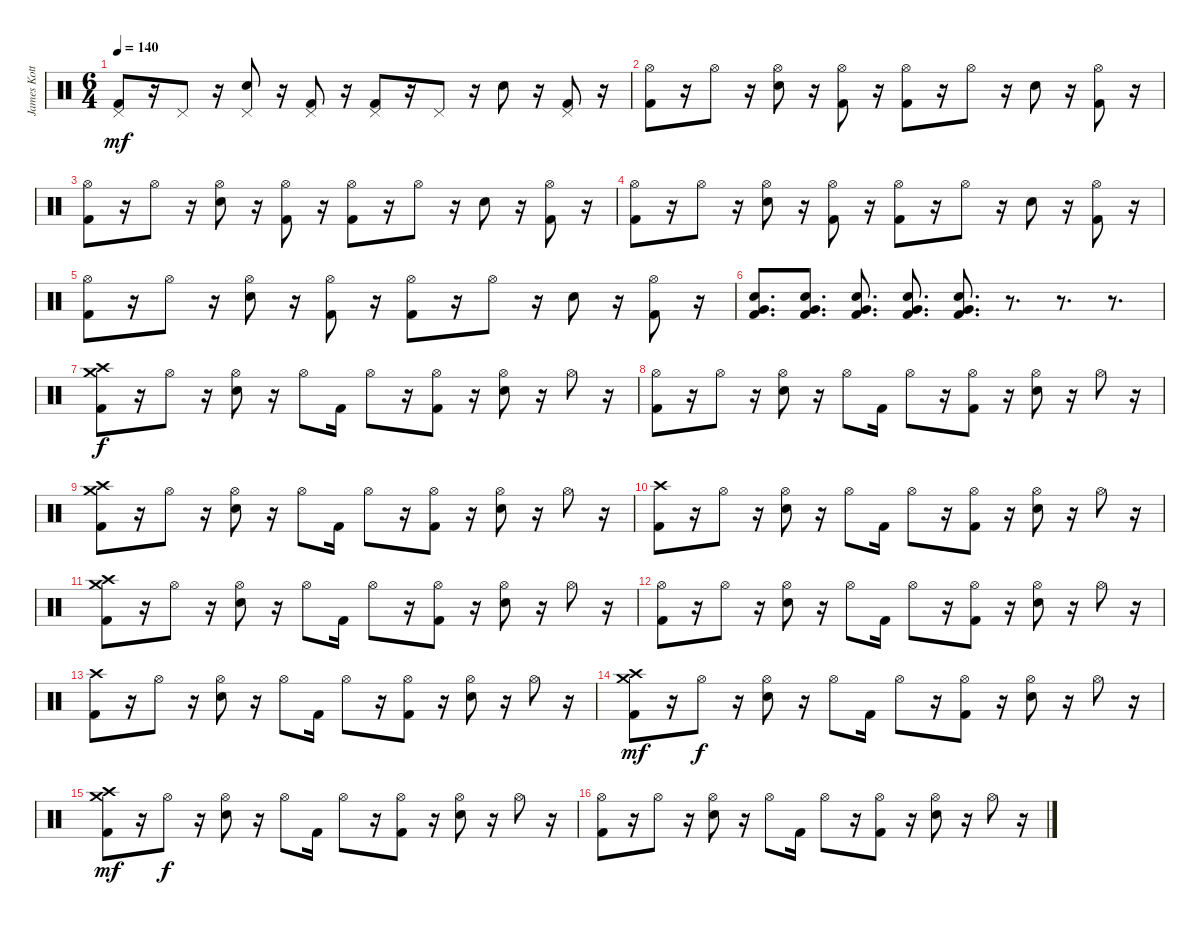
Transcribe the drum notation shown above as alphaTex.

\track ("James Kottak" "James Kott") {instrument percussion}
\staff {score}
\articulation defaults
\ts (6 4)
\tempo 140
\clef neutral
\ks c
("Pedal Hi-Hat (hit)" "Kick (hit) 2").8{dy mf} r.16 "Pedal Hi-Hat (hit)".8 r.16 ("Pedal Hi-Hat (hit)" "Electric Snare (hit)").8 r.16 ("Pedal Hi-Hat (hit)" "Kick (hit) 2").8 r.16 ("Pedal Hi-Hat (hit)" "Kick (hit) 2").8 r.16 "Pedal Hi-Hat (hit)".8 r.16 "Electric Snare (hit)".8 r.16 ("Pedal Hi-Hat (hit)" "Kick (hit) 2").8 r.16 |
("Hi-Hat (open)" "Kick (hit) 2").8 r.16 "Hi-Hat (open)".8 r.16 ("Hi-Hat (open)" "Electric Snare (hit)").8 r.16 ("Hi-Hat (open)" "Kick (hit) 2").8 r.16 ("Hi-Hat (open)" "Kick (hit) 2").8 r.16 "Hi-Hat (open)".8 r.16 "Electric Snare (hit)".8 r.16 ("Hi-Hat (open)" "Kick (hit) 2").8 r.16 |
("Hi-Hat (open)" "Kick (hit) 2").8 r.16 "Hi-Hat (open)".8 r.16 ("Hi-Hat (open)" "Electric Snare (hit)").8 r.16 ("Hi-Hat (open)" "Kick (hit) 2").8 r.16 ("Hi-Hat (open)" "Kick (hit) 2").8 r.16 "Hi-Hat (open)".8 r.16 "Electric Snare (hit)".8 r.16 ("Hi-Hat (open)" "Kick (hit) 2").8 r.16 |
("Hi-Hat (open)" "Kick (hit) 2").8 r.16 "Hi-Hat (open)".8 r.16 ("Hi-Hat (open)" "Electric Snare (hit)").8 r.16 ("Hi-Hat (open)" "Kick (hit) 2").8 r.16 ("Hi-Hat (open)" "Kick (hit) 2").8 r.16 "Hi-Hat (open)".8 r.16 "Electric Snare (hit)".8 r.16 ("Hi-Hat (open)" "Kick (hit) 2").8 r.16 |
("Hi-Hat (open)" "Kick (hit) 2").8 r.16 "Hi-Hat (open)".8 r.16 ("Hi-Hat (open)" "Electric Snare (hit)").8 r.16 ("Hi-Hat (open)" "Kick (hit) 2").8 r.16 ("Hi-Hat (open)" "Kick (hit) 2").8 r.16 "Hi-Hat (open)".8 r.16 "Electric Snare (hit)".8 r.16 ("Hi-Hat (open)" "Kick (hit) 2").8 r.16 |
("Electric Snare (hit)" "Very Low Tom (hit)" "Kick (hit) 2").8{d} ("Electric Snare (hit)" "Very Low Tom (hit)" "Kick (hit) 2").8{d} ("Electric Snare (hit)" "Very Low Tom (hit)" "Kick (hit) 2").8{d} ("Electric Snare (hit)" "Very Low Tom (hit)" "Kick (hit) 2").8{d} ("Electric Snare (hit)" "Very Low Tom (hit)" "Kick (hit) 2").8{d} r.8{d} r.8{d} r.8{d} |
("Crash high (hit)" "Crash medium (hit)" "Kick (hit) 2").8{dy f} r.16 "Hi-Hat (open)".8 r.16 ("Hi-Hat (open)" "Electric Snare (hit)").8 r.16 "Hi-Hat (open)".8 "Kick (hit) 2".16 "Hi-Hat (open)".8 r.16 ("Hi-Hat (open)" "Kick (hit) 2").8 r.16 ("Hi-Hat (open)" "Electric Snare (hit)").8 r.16 "Hi-Hat (open)".8 r.16 |
("Hi-Hat (open)" "Kick (hit) 2").8 r.16 "Hi-Hat (open)".8 r.16 ("Hi-Hat (open)" "Electric Snare (hit)").8 r.16 "Hi-Hat (open)".8 "Kick (hit) 2".16 "Hi-Hat (open)".8 r.16 ("Hi-Hat (open)" "Kick (hit) 2").8 r.16 ("Hi-Hat (open)" "Electric Snare (hit)").8 r.16 "Hi-Hat (open)".8 r.16 |
("Crash high (hit)" "Crash medium (hit)" "Kick (hit) 2").8 r.16 "Hi-Hat (open)".8 r.16 ("Hi-Hat (open)" "Electric Snare (hit)").8 r.16 "Hi-Hat (open)".8 "Kick (hit) 2".16 "Hi-Hat (open)".8 r.16 ("Hi-Hat (open)" "Kick (hit) 2").8 r.16 ("Hi-Hat (open)" "Electric Snare (hit)").8 r.16 "Hi-Hat (open)".8 r.16 |
("Crash high (hit)" "Kick (hit) 2").8 r.16 "Hi-Hat (open)".8 r.16 ("Hi-Hat (open)" "Electric Snare (hit)").8 r.16 "Hi-Hat (open)".8 "Kick (hit) 2".16 "Hi-Hat (open)".8 r.16 ("Hi-Hat (open)" "Kick (hit) 2").8 r.16 ("Hi-Hat (open)" "Electric Snare (hit)").8 r.16 "Hi-Hat (open)".8 r.16 |
("Crash high (hit)" "Crash medium (hit)" "Kick (hit) 2").8 r.16 "Hi-Hat (open)".8 r.16 ("Hi-Hat (open)" "Electric Snare (hit)").8 r.16 "Hi-Hat (open)".8 "Kick (hit) 2".16 "Hi-Hat (open)".8 r.16 ("Hi-Hat (open)" "Kick (hit) 2").8 r.16 ("Hi-Hat (open)" "Electric Snare (hit)").8 r.16 "Hi-Hat (open)".8 r.16 |
("Hi-Hat (open)" "Kick (hit) 2").8 r.16 "Hi-Hat (open)".8 r.16 ("Hi-Hat (open)" "Electric Snare (hit)").8 r.16 "Hi-Hat (open)".8 "Kick (hit) 2".16 "Hi-Hat (open)".8 r.16 ("Hi-Hat (open)" "Kick (hit) 2").8 r.16 ("Hi-Hat (open)" "Electric Snare (hit)").8 r.16 "Hi-Hat (open)".8 r.16 |
("Crash high (hit)" "Kick (hit) 2").8 r.16 "Hi-Hat (open)".8 r.16 ("Hi-Hat (open)" "Electric Snare (hit)").8 r.16 "Hi-Hat (open)".8 "Kick (hit) 2".16 "Hi-Hat (open)".8 r.16 ("Hi-Hat (open)" "Kick (hit) 2").8 r.16 ("Hi-Hat (open)" "Electric Snare (hit)").8 r.16 "Hi-Hat (open)".8 r.16 |
("Crash medium (hit)" "Crash high (hit)" "Kick (hit) 2").8{dy mf} r.16 "Hi-Hat (open)".8{dy f} r.16 ("Hi-Hat (open)" "Electric Snare (hit)").8 r.16 "Hi-Hat (open)".8 "Kick (hit) 2".16 "Hi-Hat (open)".8 r.16 ("Hi-Hat (open)" "Kick (hit) 2").8 r.16 ("Hi-Hat (open)" "Electric Snare (hit)").8 r.16 "Hi-Hat (open)".8 r.16 |
("Crash medium (hit)" "Crash high (hit)" "Kick (hit) 2").8{dy mf} r.16 "Hi-Hat (open)".8{dy f} r.16 ("Hi-Hat (open)" "Electric Snare (hit)").8 r.16 "Hi-Hat (open)".8 "Kick (hit) 2".16 "Hi-Hat (open)".8 r.16 ("Hi-Hat (open)" "Kick (hit) 2").8 r.16 ("Hi-Hat (open)" "Electric Snare (hit)").8 r.16 "Hi-Hat (open)".8 r.16 |
("Hi-Hat (open)" "Kick (hit) 2").8 r.16 "Hi-Hat (open)".8 r.16 ("Hi-Hat (open)" "Electric Snare (hit)").8 r.16 "Hi-Hat (open)".8 "Kick (hit) 2".16 "Hi-Hat (open)".8 r.16 ("Hi-Hat (open)" "Kick (hit) 2").8 r.16 ("Hi-Hat (open)" "Electric Snare (hit)").8 r.16 "Hi-Hat (open)".8 r.16
